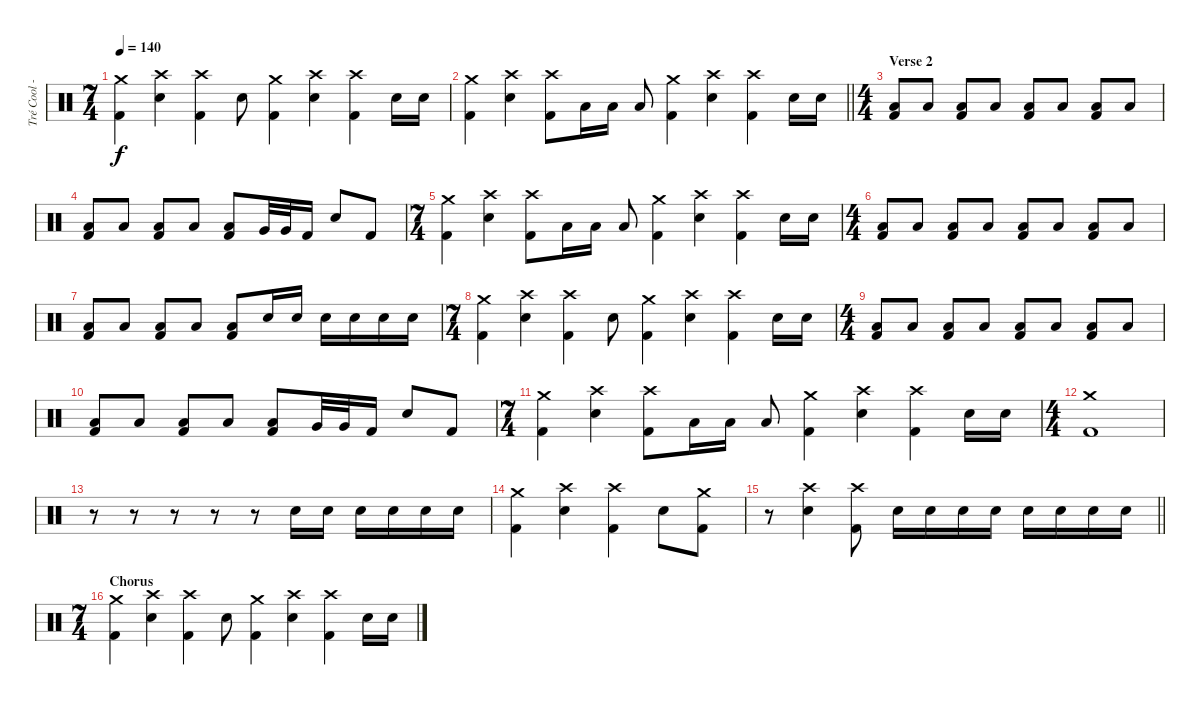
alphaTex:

\track ("Tré Cool - Drums" "Tré Cool -") {instrument percussion}
\staff {score}
\articulation defaults
\ts (7 4)
\tempo 140
\clef neutral
\ks c
("Crash medium (hit)" "Kick (hit) 2").4{dy f} ("Crash high (hit)" "Electric Snare (hit)").4 ("Crash high (hit)" "Kick (hit) 2").4 "Electric Snare (hit)".8 ("Crash medium (hit)" "Kick (hit) 2").4 ("Crash high (hit)" "Electric Snare (hit)").4 ("Crash high (hit)" "Kick (hit) 2").4 "Electric Snare (hit)".16 "Electric Snare (hit)".16 |
\barLineRight lightlight
("Crash medium (hit)" "Kick (hit) 2").4 ("Crash high (hit)" "Electric Snare (hit)").4 ("Crash high (hit)" "Kick (hit) 2").8 "Low Tom (hit)".16 "Low Tom (hit)".16 "Low Tom (hit)".8 ("Crash medium (hit)" "Kick (hit) 2").4 ("Crash high (hit)" "Electric Snare (hit)").4 ("Crash high (hit)" "Kick (hit) 2").4 "Electric Snare (hit)".16 "Electric Snare (hit)".16 |
\ts (4 4)
\section ("" "Verse 2")
("Low Floor Tom (hit)" "Kick (hit) 2").8 "Low Floor Tom (hit)".8 ("Low Floor Tom (hit)" "Kick (hit) 2").8 "Low Floor Tom (hit)".8 ("Low Floor Tom (hit)" "Kick (hit) 2").8 "Low Floor Tom (hit)".8 ("Low Floor Tom (hit)" "Kick (hit) 2").8 "Low Floor Tom (hit)".8 |
("Low Floor Tom (hit)" "Kick (hit) 2").8 "Low Floor Tom (hit)".8 ("Low Floor Tom (hit)" "Kick (hit) 2").8 "Low Floor Tom (hit)".8 ("Low Floor Tom (hit)" "Kick (hit) 2").8 "Very Low Tom (hit)".32 "Very Low Tom (hit)".32 "Kick (hit) 2".16 "Electric Snare (hit)".8 "Kick (hit) 2".8 |
\ts (7 4)
("Crash medium (hit)" "Kick (hit) 2").4 ("Crash high (hit)" "Electric Snare (hit)").4 ("Crash high (hit)" "Kick (hit) 2").8 "Low Tom (hit)".16 "Low Tom (hit)".16 "Low Tom (hit)".8 ("Crash medium (hit)" "Kick (hit) 2").4 ("Crash high (hit)" "Electric Snare (hit)").4 ("Crash high (hit)" "Kick (hit) 2").4 "Electric Snare (hit)".16 "Electric Snare (hit)".16 |
\ts (4 4)
("Low Floor Tom (hit)" "Kick (hit) 2").8 "Low Floor Tom (hit)".8 ("Low Floor Tom (hit)" "Kick (hit) 2").8 "Low Floor Tom (hit)".8 ("Low Floor Tom (hit)" "Kick (hit) 2").8 "Low Floor Tom (hit)".8 ("Low Floor Tom (hit)" "Kick (hit) 2").8 "Low Floor Tom (hit)".8 |
("Low Floor Tom (hit)" "Kick (hit) 2").8 "Low Floor Tom (hit)".8 ("Low Floor Tom (hit)" "Kick (hit) 2").8 "Low Floor Tom (hit)".8 ("Low Floor Tom (hit)" "Kick (hit) 2").8 "Electric Snare (hit)".16 "Electric Snare (hit)".16 "Electric Snare (hit)".16 "Electric Snare (hit)".16 "Electric Snare (hit)".16 "Electric Snare (hit)".16 |
\ts (7 4)
("Crash medium (hit)" "Kick (hit) 2").4 ("Crash high (hit)" "Electric Snare (hit)").4 ("Crash high (hit)" "Kick (hit) 2").4 "Electric Snare (hit)".8 ("Crash medium (hit)" "Kick (hit) 2").4 ("Crash high (hit)" "Electric Snare (hit)").4 ("Crash high (hit)" "Kick (hit) 2").4 "Electric Snare (hit)".16 "Electric Snare (hit)".16 |
\ts (4 4)
("Low Floor Tom (hit)" "Kick (hit) 2").8 "Low Floor Tom (hit)".8 ("Low Floor Tom (hit)" "Kick (hit) 2").8 "Low Floor Tom (hit)".8 ("Low Floor Tom (hit)" "Kick (hit) 2").8 "Low Floor Tom (hit)".8 ("Low Floor Tom (hit)" "Kick (hit) 2").8 "Low Floor Tom (hit)".8 |
("Low Floor Tom (hit)" "Kick (hit) 2").8 "Low Floor Tom (hit)".8 ("Low Floor Tom (hit)" "Kick (hit) 2").8 "Low Floor Tom (hit)".8 ("Low Floor Tom (hit)" "Kick (hit) 2").8 "Very Low Tom (hit)".32 "Very Low Tom (hit)".32 "Kick (hit) 2".16 "Electric Snare (hit)".8 "Kick (hit) 2".8 |
\ts (7 4)
("Crash medium (hit)" "Kick (hit) 2").4 ("Crash high (hit)" "Electric Snare (hit)").4 ("Crash high (hit)" "Kick (hit) 2").8 "Low Tom (hit)".16 "Low Tom (hit)".16 "Low Tom (hit)".8 ("Crash medium (hit)" "Kick (hit) 2").4 ("Crash high (hit)" "Electric Snare (hit)").4 ("Crash high (hit)" "Kick (hit) 2").4 "Electric Snare (hit)".16 "Electric Snare (hit)".16 |
\ts (4 4)
("Crash medium (hit)" "Kick (hit) 2").1 |
r.8 r.8 r.8 r.8 r.8 "Electric Snare (hit)".16 "Electric Snare (hit)".16 "Electric Snare (hit)".16 "Electric Snare (hit)".16 "Electric Snare (hit)".16 "Electric Snare (hit)".16 |
("Crash medium (hit)" "Kick (hit) 2").4 ("Crash high (hit)" "Electric Snare (hit)").4 ("Crash high (hit)" "Kick (hit) 2").4 "Electric Snare (hit)".8 ("Crash medium (hit)" "Kick (hit) 2").8 |
\barLineRight lightlight
r.8 ("Crash high (hit)" "Electric Snare (hit)").4 ("Crash high (hit)" "Kick (hit) 2").8 "Electric Snare (hit)".16 "Electric Snare (hit)".16 "Electric Snare (hit)".16 "Electric Snare (hit)".16 "Electric Snare (hit)".16 "Electric Snare (hit)".16 "Electric Snare (hit)".16 "Electric Snare (hit)".16 |
\ts (7 4)
\section ("" "Chorus")
("Crash medium (hit)" "Kick (hit) 2").4 ("Crash high (hit)" "Electric Snare (hit)").4 ("Crash high (hit)" "Kick (hit) 2").4 "Electric Snare (hit)".8 ("Crash medium (hit)" "Kick (hit) 2").4 ("Crash high (hit)" "Electric Snare (hit)").4 ("Crash high (hit)" "Kick (hit) 2").4 "Electric Snare (hit)".16 "Electric Snare (hit)".16
